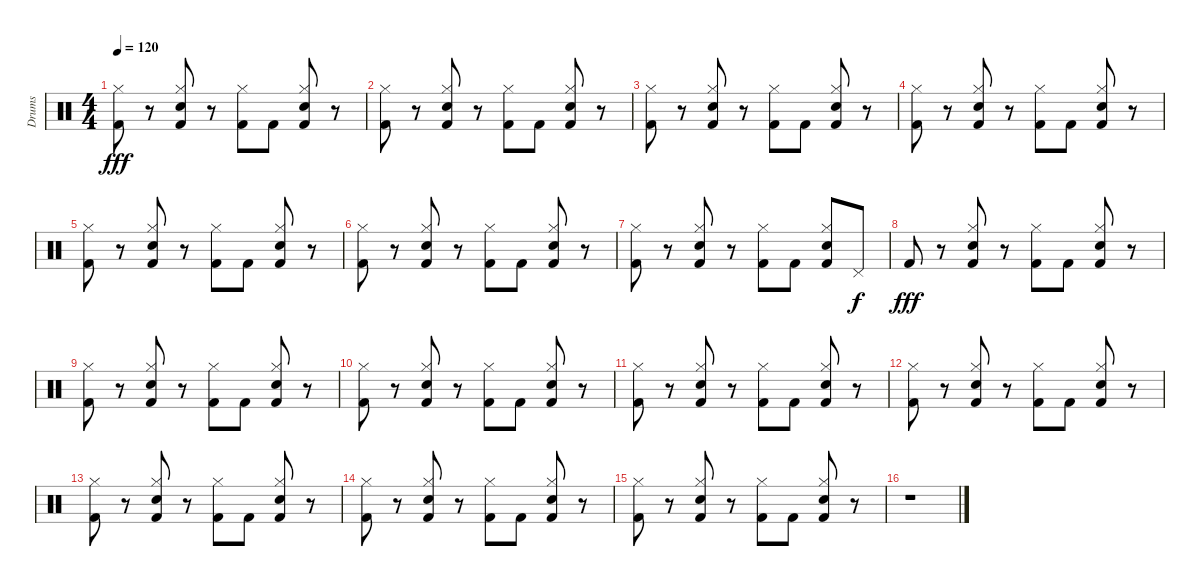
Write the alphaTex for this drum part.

\track ("Drums" "Drums") {instrument percussion}
\staff {score}
\articulation defaults
\ts (4 4)
\tempo 120
\clef neutral
\ks c
("Kick (hit) 2" "Hi-Hat (closed)").8{dy fff} r.8 ("Kick (hit) 2" "Electric Snare (hit)" "Hi-Hat (closed)").8 r.8 ("Kick (hit) 2" "Hi-Hat (closed)").8 "Kick (hit) 2".8 ("Kick (hit) 2" "Electric Snare (hit)" "Hi-Hat (closed)").8 r.8 |
("Kick (hit) 2" "Hi-Hat (closed)").8 r.8 ("Kick (hit) 2" "Electric Snare (hit)" "Hi-Hat (closed)").8 r.8 ("Kick (hit) 2" "Hi-Hat (closed)").8 "Kick (hit) 2".8 ("Kick (hit) 2" "Electric Snare (hit)" "Hi-Hat (closed)").8 r.8 |
("Kick (hit) 2" "Hi-Hat (closed)").8 r.8 ("Kick (hit) 2" "Electric Snare (hit)" "Hi-Hat (closed)").8 r.8 ("Kick (hit) 2" "Hi-Hat (closed)").8 "Kick (hit) 2".8 ("Kick (hit) 2" "Electric Snare (hit)" "Hi-Hat (closed)").8 r.8 |
("Kick (hit) 2" "Hi-Hat (closed)").8 r.8 ("Kick (hit) 2" "Electric Snare (hit)" "Hi-Hat (closed)").8 r.8 ("Kick (hit) 2" "Hi-Hat (closed)").8 "Kick (hit) 2".8 ("Kick (hit) 2" "Electric Snare (hit)" "Hi-Hat (closed)").8 r.8 |
("Kick (hit) 2" "Hi-Hat (closed)").8 r.8 ("Kick (hit) 2" "Electric Snare (hit)" "Hi-Hat (closed)").8 r.8 ("Kick (hit) 2" "Hi-Hat (closed)").8 "Kick (hit) 2".8 ("Kick (hit) 2" "Electric Snare (hit)" "Hi-Hat (closed)").8 r.8 |
("Kick (hit) 2" "Hi-Hat (closed)").8 r.8 ("Kick (hit) 2" "Electric Snare (hit)" "Hi-Hat (closed)").8 r.8 ("Kick (hit) 2" "Hi-Hat (closed)").8 "Kick (hit) 2".8 ("Kick (hit) 2" "Electric Snare (hit)" "Hi-Hat (closed)").8 r.8 |
("Kick (hit) 2" "Hi-Hat (closed)").8 r.8 ("Kick (hit) 2" "Electric Snare (hit)" "Hi-Hat (closed)").8 r.8 ("Kick (hit) 2" "Hi-Hat (closed)").8 "Kick (hit) 2".8 ("Kick (hit) 2" "Electric Snare (hit)" "Hi-Hat (closed)").8 "Pedal Hi-Hat (hit)".8{dy f} |
"Kick (hit) 2".8{dy fff} r.8 ("Kick (hit) 2" "Electric Snare (hit)" "Hi-Hat (closed)").8 r.8 ("Kick (hit) 2" "Hi-Hat (closed)").8 "Kick (hit) 2".8 ("Kick (hit) 2" "Electric Snare (hit)" "Hi-Hat (closed)").8 r.8 |
("Kick (hit) 2" "Hi-Hat (closed)").8 r.8 ("Kick (hit) 2" "Electric Snare (hit)" "Hi-Hat (closed)").8 r.8 ("Kick (hit) 2" "Hi-Hat (closed)").8 "Kick (hit) 2".8 ("Kick (hit) 2" "Electric Snare (hit)" "Hi-Hat (closed)").8 r.8 |
("Kick (hit) 2" "Hi-Hat (closed)").8 r.8 ("Kick (hit) 2" "Electric Snare (hit)" "Hi-Hat (closed)").8 r.8 ("Kick (hit) 2" "Hi-Hat (closed)").8 "Kick (hit) 2".8 ("Kick (hit) 2" "Electric Snare (hit)" "Hi-Hat (closed)").8 r.8 |
("Kick (hit) 2" "Hi-Hat (closed)").8 r.8 ("Kick (hit) 2" "Electric Snare (hit)" "Hi-Hat (closed)").8 r.8 ("Kick (hit) 2" "Hi-Hat (closed)").8 "Kick (hit) 2".8 ("Kick (hit) 2" "Electric Snare (hit)" "Hi-Hat (closed)").8 r.8 |
("Kick (hit) 2" "Hi-Hat (closed)").8 r.8 ("Kick (hit) 2" "Electric Snare (hit)" "Hi-Hat (closed)").8 r.8 ("Kick (hit) 2" "Hi-Hat (closed)").8 "Kick (hit) 2".8 ("Kick (hit) 2" "Electric Snare (hit)" "Hi-Hat (closed)").8 r.8 |
("Kick (hit) 2" "Hi-Hat (closed)").8 r.8 ("Kick (hit) 2" "Electric Snare (hit)" "Hi-Hat (closed)").8 r.8 ("Kick (hit) 2" "Hi-Hat (closed)").8 "Kick (hit) 2".8 ("Kick (hit) 2" "Electric Snare (hit)" "Hi-Hat (closed)").8 r.8 |
("Kick (hit) 2" "Hi-Hat (closed)").8 r.8 ("Kick (hit) 2" "Electric Snare (hit)" "Hi-Hat (closed)").8 r.8 ("Kick (hit) 2" "Hi-Hat (closed)").8 "Kick (hit) 2".8 ("Kick (hit) 2" "Electric Snare (hit)" "Hi-Hat (closed)").8 r.8 |
("Kick (hit) 2" "Hi-Hat (closed)").8 r.8 ("Kick (hit) 2" "Electric Snare (hit)" "Hi-Hat (closed)").8 r.8 ("Kick (hit) 2" "Hi-Hat (closed)").8 "Kick (hit) 2".8 ("Kick (hit) 2" "Electric Snare (hit)" "Hi-Hat (closed)").8 r.8 |
r.1
